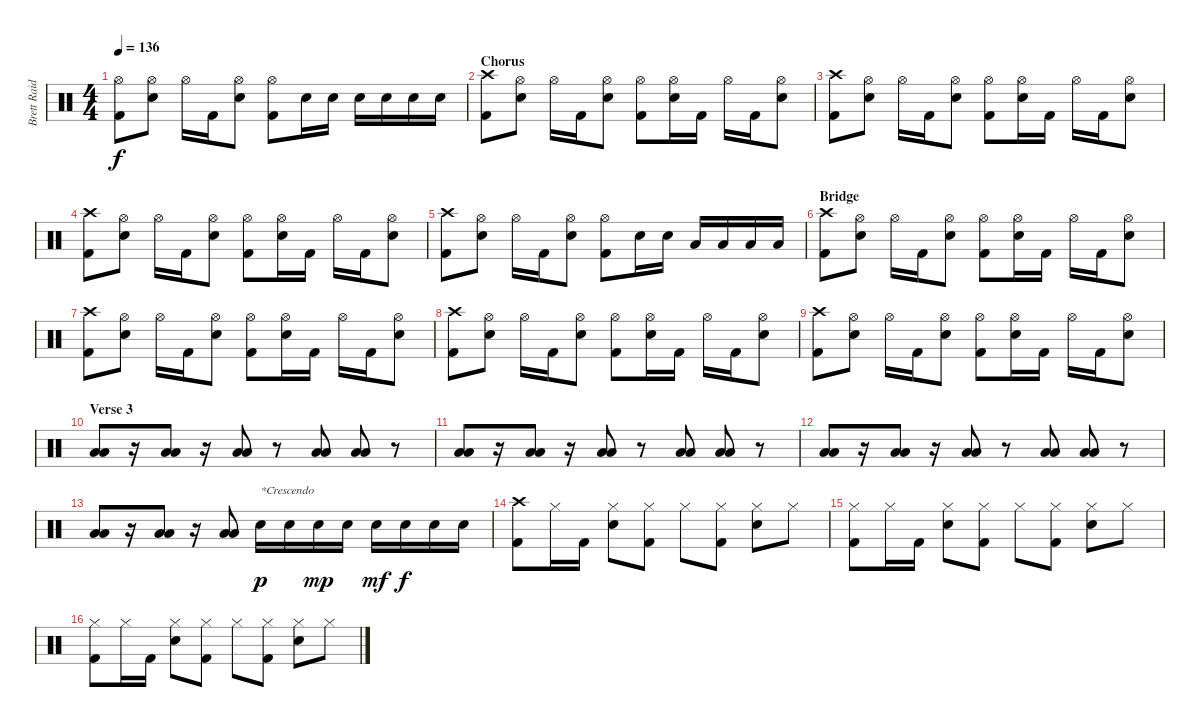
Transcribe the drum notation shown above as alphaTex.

\track ("Brett Raid (Drums)" "Brett Raid") {instrument percussion}
\staff {score}
\articulation defaults
\ts (4 4)
\tempo 136
\clef neutral
\ks c
("Hi-Hat (open)" "Kick (hit) 2").8{dy f} ("Hi-Hat (open)" "Electric Snare (hit)").8 "Hi-Hat (open)".16 "Kick (hit) 2".16 ("Hi-Hat (open)" "Electric Snare (hit)").8 ("Hi-Hat (open)" "Kick (hit) 2").8 "Electric Snare (hit)".16 "Electric Snare (hit)".16 "Electric Snare (hit)".16 "Electric Snare (hit)".16 "Electric Snare (hit)".16 "Electric Snare (hit)".16 |
\section ("" "Chorus")
("Crash high (hit)" "Kick (hit) 2").8 ("Hi-Hat (open)" "Electric Snare (hit)").8 "Hi-Hat (open)".16 "Kick (hit) 2".16 ("Hi-Hat (open)" "Electric Snare (hit)").8 ("Hi-Hat (open)" "Kick (hit) 2").8 ("Hi-Hat (open)" "Electric Snare (hit)").16 "Kick (hit) 2".16 "Hi-Hat (open)".16 "Kick (hit) 2".16 ("Hi-Hat (open)" "Electric Snare (hit)").8 |
("Crash high (hit)" "Kick (hit) 2").8 ("Hi-Hat (open)" "Electric Snare (hit)").8 "Hi-Hat (open)".16 "Kick (hit) 2".16 ("Hi-Hat (open)" "Electric Snare (hit)").8 ("Hi-Hat (open)" "Kick (hit) 2").8 ("Hi-Hat (open)" "Electric Snare (hit)").16 "Kick (hit) 2".16 "Hi-Hat (open)".16 "Kick (hit) 2".16 ("Hi-Hat (open)" "Electric Snare (hit)").8 |
("Crash high (hit)" "Kick (hit) 2").8 ("Hi-Hat (open)" "Electric Snare (hit)").8 "Hi-Hat (open)".16 "Kick (hit) 2".16 ("Hi-Hat (open)" "Electric Snare (hit)").8 ("Hi-Hat (open)" "Kick (hit) 2").8 ("Hi-Hat (open)" "Electric Snare (hit)").16 "Kick (hit) 2".16 "Hi-Hat (open)".16 "Kick (hit) 2".16 ("Hi-Hat (open)" "Electric Snare (hit)").8 |
("Crash high (hit)" "Kick (hit) 2").8 ("Hi-Hat (open)" "Electric Snare (hit)").8 "Hi-Hat (open)".16 "Kick (hit) 2".16 ("Hi-Hat (open)" "Electric Snare (hit)").8 ("Hi-Hat (open)" "Kick (hit) 2").8 "Electric Snare (hit)".16 "Electric Snare (hit)".16 "Low Tom (hit)".16 "Low Tom (hit)".16 "Low Floor Tom (hit)".16 "Low Floor Tom (hit)".16 |
\section ("" "Bridge")
("Crash high (hit)" "Kick (hit) 2").8 ("Hi-Hat (open)" "Electric Snare (hit)").8 "Hi-Hat (open)".16 "Kick (hit) 2".16 ("Hi-Hat (open)" "Electric Snare (hit)").8 ("Hi-Hat (open)" "Kick (hit) 2").8 ("Hi-Hat (open)" "Electric Snare (hit)").16 "Kick (hit) 2".16 "Hi-Hat (open)".16 "Kick (hit) 2".16 ("Hi-Hat (open)" "Electric Snare (hit)").8 |
("Crash high (hit)" "Kick (hit) 2").8 ("Hi-Hat (open)" "Electric Snare (hit)").8 "Hi-Hat (open)".16 "Kick (hit) 2".16 ("Hi-Hat (open)" "Electric Snare (hit)").8 ("Hi-Hat (open)" "Kick (hit) 2").8 ("Hi-Hat (open)" "Electric Snare (hit)").16 "Kick (hit) 2".16 "Hi-Hat (open)".16 "Kick (hit) 2".16 ("Hi-Hat (open)" "Electric Snare (hit)").8 |
("Crash high (hit)" "Kick (hit) 2").8 ("Hi-Hat (open)" "Electric Snare (hit)").8 "Hi-Hat (open)".16 "Kick (hit) 2".16 ("Hi-Hat (open)" "Electric Snare (hit)").8 ("Hi-Hat (open)" "Kick (hit) 2").8 ("Hi-Hat (open)" "Electric Snare (hit)").16 "Kick (hit) 2".16 "Hi-Hat (open)".16 "Kick (hit) 2".16 ("Hi-Hat (open)" "Electric Snare (hit)").8 |
("Crash high (hit)" "Kick (hit) 2").8 ("Hi-Hat (open)" "Electric Snare (hit)").8 "Hi-Hat (open)".16 "Kick (hit) 2".16 ("Hi-Hat (open)" "Electric Snare (hit)").8 ("Hi-Hat (open)" "Kick (hit) 2").8 ("Hi-Hat (open)" "Electric Snare (hit)").16 "Kick (hit) 2".16 "Hi-Hat (open)".16 "Kick (hit) 2".16 ("Hi-Hat (open)" "Electric Snare (hit)").8 |
\section ("" "Verse 3")
("Low Tom (hit)" "Low Floor Tom (hit)").8 r.16 ("Low Tom (hit)" "Low Floor Tom (hit)").8 r.16 ("Low Tom (hit)" "Low Floor Tom (hit)").8 r.8 ("Low Tom (hit)" "Low Floor Tom (hit)").8 ("Low Tom (hit)" "Low Floor Tom (hit)").8 r.8 |
("Low Tom (hit)" "Low Floor Tom (hit)").8 r.16 ("Low Tom (hit)" "Low Floor Tom (hit)").8 r.16 ("Low Tom (hit)" "Low Floor Tom (hit)").8 r.8 ("Low Tom (hit)" "Low Floor Tom (hit)").8 ("Low Tom (hit)" "Low Floor Tom (hit)").8 r.8 |
("Low Tom (hit)" "Low Floor Tom (hit)").8 r.16 ("Low Tom (hit)" "Low Floor Tom (hit)").8 r.16 ("Low Tom (hit)" "Low Floor Tom (hit)").8 r.8 ("Low Tom (hit)" "Low Floor Tom (hit)").8 ("Low Tom (hit)" "Low Floor Tom (hit)").8 r.8 |
("Low Tom (hit)" "Low Floor Tom (hit)").8 r.16 ("Low Tom (hit)" "Low Floor Tom (hit)").8 r.16 ("Low Tom (hit)" "Low Floor Tom (hit)").8 "Electric Snare (hit)".16{txt "*Crescendo" dy p} "Electric Snare (hit)".16 "Electric Snare (hit)".16{dy mp} "Electric Snare (hit)".16 "Electric Snare (hit)".16{dy mf} "Electric Snare (hit)".16{dy f} "Electric Snare (hit)".16 "Electric Snare (hit)".16 |
("Crash high (hit)" "Kick (hit) 2").8 "Hi-Hat (closed)".16 "Kick (hit) 2".16 ("Hi-Hat (closed)" "Electric Snare (hit)").8 ("Hi-Hat (closed)" "Kick (hit) 2").8 "Hi-Hat (closed)".8 ("Hi-Hat (closed)" "Kick (hit) 2").8 ("Hi-Hat (closed)" "Electric Snare (hit)").8 "Hi-Hat (closed)".8 |
("Hi-Hat (closed)" "Kick (hit) 2").8 "Hi-Hat (closed)".16 "Kick (hit) 2".16 ("Hi-Hat (closed)" "Electric Snare (hit)").8 ("Hi-Hat (closed)" "Kick (hit) 2").8 "Hi-Hat (closed)".8 ("Hi-Hat (closed)" "Kick (hit) 2").8 ("Hi-Hat (closed)" "Electric Snare (hit)").8 "Hi-Hat (closed)".8 |
("Hi-Hat (closed)" "Kick (hit) 2").8 "Hi-Hat (closed)".16 "Kick (hit) 2".16 ("Hi-Hat (closed)" "Electric Snare (hit)").8 ("Hi-Hat (closed)" "Kick (hit) 2").8 "Hi-Hat (closed)".8 ("Hi-Hat (closed)" "Kick (hit) 2").8 ("Hi-Hat (closed)" "Electric Snare (hit)").8 "Hi-Hat (closed)".8
